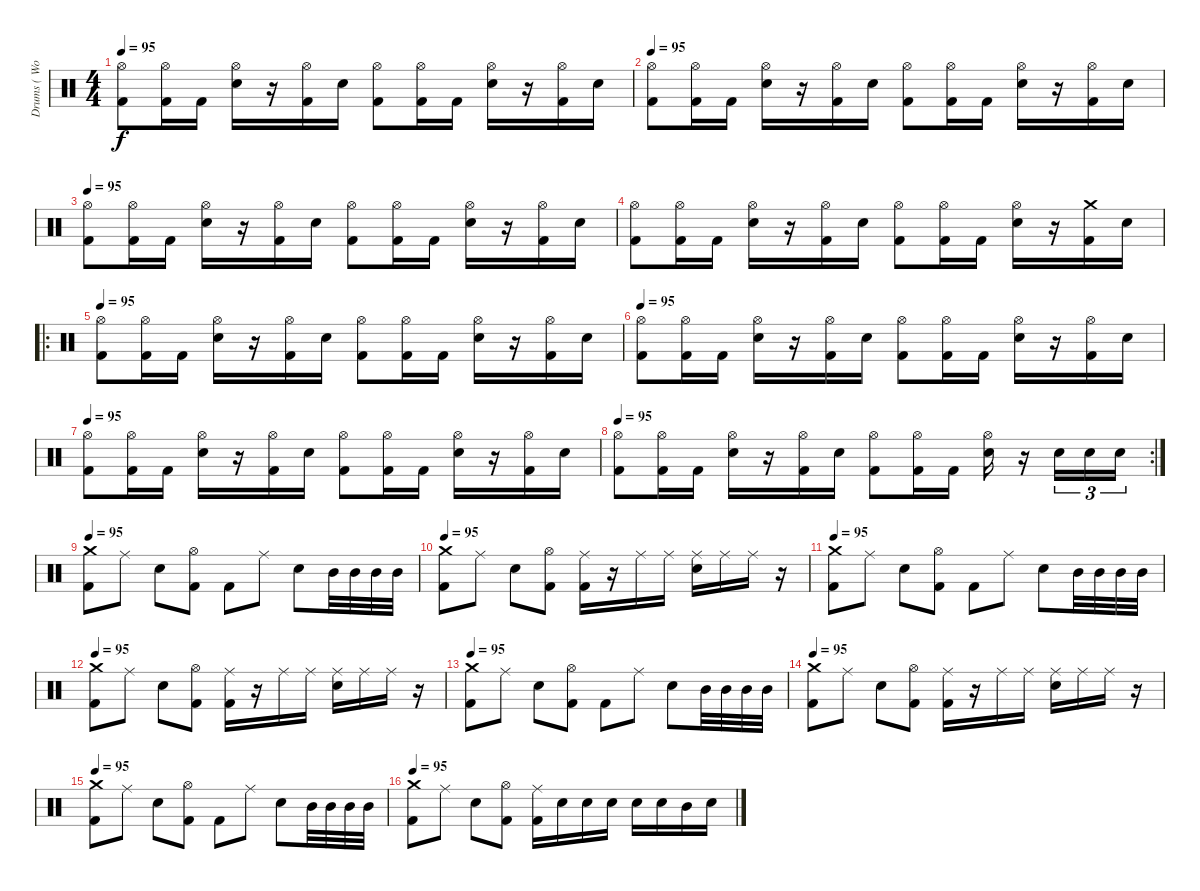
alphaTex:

\track ("Drums ( Wolf Simons)" "Drums ( Wo") {instrument percussion}
\staff {score}
\articulation defaults
\ts (4 4)
\tempo 95
\clef neutral
\ks c
("Kick (hit) 2" "Hi-Hat (open)").8{dy f} ("Kick (hit) 2" "Hi-Hat (open)").16 "Kick (hit) 2".16 ("Electric Snare (hit)" "Hi-Hat (open)").16 r.16 ("Kick (hit) 2" "Hi-Hat (open)").16 "Electric Snare (hit)".16 ("Kick (hit) 2" "Hi-Hat (open)").8 ("Kick (hit) 2" "Hi-Hat (open)").16 "Kick (hit) 2".16 ("Electric Snare (hit)" "Hi-Hat (open)").16 r.16 ("Kick (hit) 2" "Hi-Hat (open)").16 "Electric Snare (hit)".16 |
\tempo 95
("Kick (hit) 2" "Hi-Hat (open)").8 ("Kick (hit) 2" "Hi-Hat (open)").16 "Kick (hit) 2".16 ("Electric Snare (hit)" "Hi-Hat (open)").16 r.16 ("Kick (hit) 2" "Hi-Hat (open)").16 "Electric Snare (hit)".16 ("Kick (hit) 2" "Hi-Hat (open)").8 ("Kick (hit) 2" "Hi-Hat (open)").16 "Kick (hit) 2".16 ("Electric Snare (hit)" "Hi-Hat (open)").16 r.16 ("Kick (hit) 2" "Hi-Hat (open)").16 "Electric Snare (hit)".16 |
\tempo 95
("Kick (hit) 2" "Hi-Hat (open)").8 ("Kick (hit) 2" "Hi-Hat (open)").16 "Kick (hit) 2".16 ("Electric Snare (hit)" "Hi-Hat (open)").16 r.16 ("Kick (hit) 2" "Hi-Hat (open)").16 "Electric Snare (hit)".16 ("Kick (hit) 2" "Hi-Hat (open)").8 ("Kick (hit) 2" "Hi-Hat (open)").16 "Kick (hit) 2".16 ("Electric Snare (hit)" "Hi-Hat (open)").16 r.16 ("Kick (hit) 2" "Hi-Hat (open)").16 "Electric Snare (hit)".16 |
("Kick (hit) 2" "Hi-Hat (open)").8 ("Kick (hit) 2" "Hi-Hat (open)").16 "Kick (hit) 2".16 ("Electric Snare (hit)" "Hi-Hat (open)").16 r.16 ("Kick (hit) 2" "Hi-Hat (open)").16 "Electric Snare (hit)".16 ("Kick (hit) 2" "Hi-Hat (open)").8 ("Kick (hit) 2" "Hi-Hat (open)").16 "Kick (hit) 2".16 ("Electric Snare (hit)" "Hi-Hat (open)").16 r.16 ("Kick (hit) 2" "Crash medium (hit)").16 "Electric Snare (hit)".16 |
\ro
\tempo 95
("Kick (hit) 2" "Hi-Hat (open)").8 ("Kick (hit) 2" "Hi-Hat (open)").16 "Kick (hit) 2".16 ("Electric Snare (hit)" "Hi-Hat (open)").16 r.16 ("Kick (hit) 2" "Hi-Hat (open)").16 "Electric Snare (hit)".16 ("Kick (hit) 2" "Hi-Hat (open)").8 ("Kick (hit) 2" "Hi-Hat (open)").16 "Kick (hit) 2".16 ("Electric Snare (hit)" "Hi-Hat (open)").16 r.16 ("Kick (hit) 2" "Hi-Hat (open)").16 "Electric Snare (hit)".16 |
\tempo 95
("Kick (hit) 2" "Hi-Hat (open)").8 ("Kick (hit) 2" "Hi-Hat (open)").16 "Kick (hit) 2".16 ("Electric Snare (hit)" "Hi-Hat (open)").16 r.16 ("Kick (hit) 2" "Hi-Hat (open)").16 "Electric Snare (hit)".16 ("Kick (hit) 2" "Hi-Hat (open)").8 ("Kick (hit) 2" "Hi-Hat (open)").16 "Kick (hit) 2".16 ("Electric Snare (hit)" "Hi-Hat (open)").16 r.16 ("Kick (hit) 2" "Hi-Hat (open)").16 "Electric Snare (hit)".16 |
\tempo 95
("Kick (hit) 2" "Hi-Hat (open)").8 ("Kick (hit) 2" "Hi-Hat (open)").16 "Kick (hit) 2".16 ("Electric Snare (hit)" "Hi-Hat (open)").16 r.16 ("Kick (hit) 2" "Hi-Hat (open)").16 "Electric Snare (hit)".16 ("Kick (hit) 2" "Hi-Hat (open)").8 ("Kick (hit) 2" "Hi-Hat (open)").16 "Kick (hit) 2".16 ("Electric Snare (hit)" "Hi-Hat (open)").16 r.16 ("Kick (hit) 2" "Hi-Hat (open)").16 "Electric Snare (hit)".16 |
\rc 2
\tempo 95
("Kick (hit) 2" "Hi-Hat (open)").8 ("Kick (hit) 2" "Hi-Hat (open)").16 "Kick (hit) 2".16 ("Electric Snare (hit)" "Hi-Hat (open)").16 r.16 ("Kick (hit) 2" "Hi-Hat (open)").16 "Electric Snare (hit)".16 ("Kick (hit) 2" "Hi-Hat (open)").8 ("Kick (hit) 2" "Hi-Hat (open)").16 "Kick (hit) 2".16 ("Electric Snare (hit)" "Hi-Hat (open)").16 r.16 "Electric Snare (hit)".16{tu (3 2)} "Electric Snare (hit)".16{tu (3 2)} "Electric Snare (hit)".16{tu (3 2)} |
\tempo 95
("Kick (hit) 2" "Crash medium (hit)").8 "Ride (middle)".8 "Electric Snare (hit)".8 ("Kick (hit) 2" "Hi-Hat (open)").8 "Kick (hit) 2".8 "Ride (middle)".8 "Electric Snare (hit)".8 "Mid Tom (hit)".32 "Mid Tom (hit)".32 "Mid Tom (hit)".32 "Mid Tom (hit)".32 |
\tempo 95
("Kick (hit) 2" "Crash medium (hit)").8 "Ride (middle)".8 "Electric Snare (hit)".8 ("Kick (hit) 2" "Hi-Hat (open)").8 ("Kick (hit) 2" "Ride (middle)").16 r.16 "Ride (middle)".16 "Ride (middle)".16 ("Ride (middle)" "Electric Snare (hit)").16 "Ride (middle)".16 "Ride (middle)".16 r.16 |
\tempo 95
("Kick (hit) 2" "Crash medium (hit)").8 "Ride (middle)".8 "Electric Snare (hit)".8 ("Kick (hit) 2" "Hi-Hat (open)").8 "Kick (hit) 2".8 "Ride (middle)".8 "Electric Snare (hit)".8 "Mid Tom (hit)".32 "Mid Tom (hit)".32 "Mid Tom (hit)".32 "Mid Tom (hit)".32 |
\tempo 95
("Kick (hit) 2" "Crash medium (hit)").8 "Ride (middle)".8 "Electric Snare (hit)".8 ("Kick (hit) 2" "Hi-Hat (open)").8 ("Kick (hit) 2" "Ride (middle)").16 r.16 "Ride (middle)".16 "Ride (middle)".16 ("Ride (middle)" "Electric Snare (hit)").16 "Ride (middle)".16 "Ride (middle)".16 r.16 |
\tempo 95
("Kick (hit) 2" "Crash medium (hit)").8 "Ride (middle)".8 "Electric Snare (hit)".8 ("Kick (hit) 2" "Hi-Hat (open)").8 "Kick (hit) 2".8 "Ride (middle)".8 "Electric Snare (hit)".8 "Mid Tom (hit)".32 "Mid Tom (hit)".32 "Mid Tom (hit)".32 "Mid Tom (hit)".32 |
\tempo 95
("Kick (hit) 2" "Crash medium (hit)").8 "Ride (middle)".8 "Electric Snare (hit)".8 ("Kick (hit) 2" "Hi-Hat (open)").8 ("Kick (hit) 2" "Ride (middle)").16 r.16 "Ride (middle)".16 "Ride (middle)".16 ("Ride (middle)" "Electric Snare (hit)").16 "Ride (middle)".16 "Ride (middle)".16 r.16 |
\tempo 95
("Kick (hit) 2" "Crash medium (hit)").8 "Ride (middle)".8 "Electric Snare (hit)".8 ("Kick (hit) 2" "Hi-Hat (open)").8 "Kick (hit) 2".8 "Ride (middle)".8 "Electric Snare (hit)".8 "Mid Tom (hit)".32 "Mid Tom (hit)".32 "Mid Tom (hit)".32 "Mid Tom (hit)".32 |
\tempo 95
("Kick (hit) 2" "Crash medium (hit)").8 "Ride (middle)".8 "Electric Snare (hit)".8 ("Kick (hit) 2" "Hi-Hat (open)").8 ("Kick (hit) 2" "Ride (middle)").16 "Electric Snare (hit)".16 "Electric Snare (hit)".16 "Electric Snare (hit)".16 "Electric Snare (hit)".16 "Snare (hit) 2".16 "Mid Tom (hit)".16 "Electric Snare (hit)".16
